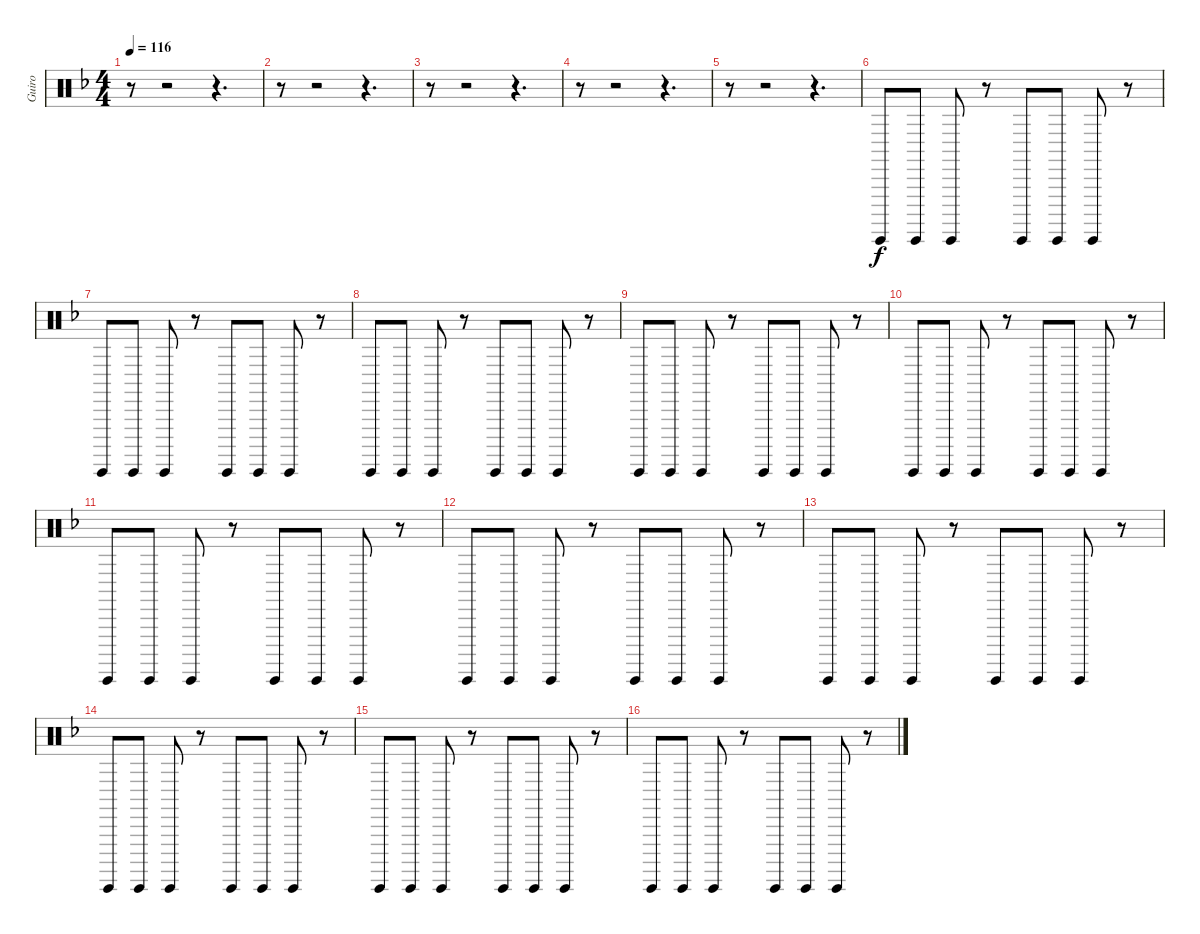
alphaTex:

\track ("Guiro" "Guiro") {instrument percussion}
\staff {score}
\articulation defaults
\ts (4 4)
\tempo 116
\clef neutral
\ks dminor
r.8{dy f} r.2 r.4{d} |
r.8 r.2 r.4{d} |
r.8 r.2 r.4{d} |
r.8 r.2 r.4{d} |
r.8 r.2 r.4{d} |
"Guiro (hit)".8 "Guiro (hit)".8 "Guiro (hit)".8 r.8 "Guiro (hit)".8 "Guiro (hit)".8 "Guiro (hit)".8 r.8 |
"Guiro (hit)".8 "Guiro (hit)".8 "Guiro (hit)".8 r.8 "Guiro (hit)".8 "Guiro (hit)".8 "Guiro (hit)".8 r.8 |
"Guiro (hit)".8 "Guiro (hit)".8 "Guiro (hit)".8 r.8 "Guiro (hit)".8 "Guiro (hit)".8 "Guiro (hit)".8 r.8 |
"Guiro (hit)".8 "Guiro (hit)".8 "Guiro (hit)".8 r.8 "Guiro (hit)".8 "Guiro (hit)".8 "Guiro (hit)".8 r.8 |
"Guiro (hit)".8 "Guiro (hit)".8 "Guiro (hit)".8 r.8 "Guiro (hit)".8 "Guiro (hit)".8 "Guiro (hit)".8 r.8 |
"Guiro (hit)".8 "Guiro (hit)".8 "Guiro (hit)".8 r.8 "Guiro (hit)".8 "Guiro (hit)".8 "Guiro (hit)".8 r.8 |
"Guiro (hit)".8 "Guiro (hit)".8 "Guiro (hit)".8 r.8 "Guiro (hit)".8 "Guiro (hit)".8 "Guiro (hit)".8 r.8 |
"Guiro (hit)".8 "Guiro (hit)".8 "Guiro (hit)".8 r.8 "Guiro (hit)".8 "Guiro (hit)".8 "Guiro (hit)".8 r.8 |
"Guiro (hit)".8 "Guiro (hit)".8 "Guiro (hit)".8 r.8 "Guiro (hit)".8 "Guiro (hit)".8 "Guiro (hit)".8 r.8 |
"Guiro (hit)".8 "Guiro (hit)".8 "Guiro (hit)".8 r.8 "Guiro (hit)".8 "Guiro (hit)".8 "Guiro (hit)".8 r.8 |
"Guiro (hit)".8 "Guiro (hit)".8 "Guiro (hit)".8 r.8 "Guiro (hit)".8 "Guiro (hit)".8 "Guiro (hit)".8 r.8
